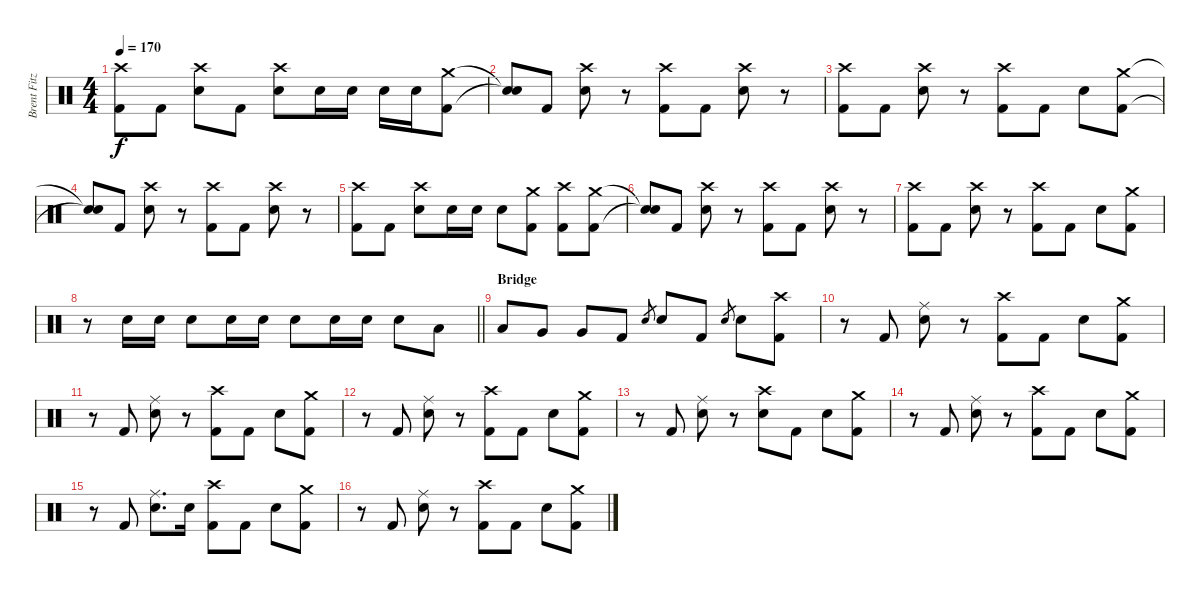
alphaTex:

\track ("Brent Fitz" "Brent Fitz") {instrument percussion}
\staff {score}
\articulation defaults
\ts (4 4)
\tempo 170
\clef neutral
\ks c
("Crash high (hit)" "Kick (hit) 2").8{dy f} "Kick (hit) 2".8 ("Crash high (hit)" "Electric Snare (hit)").8 "Kick (hit) 2".8 ("Crash high (hit)" "Electric Snare (hit)").8 "Electric Snare (hit)".16 "Electric Snare (hit)".16 "Electric Snare (hit)".16 "Electric Snare (hit)".16 ("Crash medium (hit)" "Kick (hit) 2").8 |
("Snare (hit)"{t} "Snare (hit)"{t}).8 "Kick (hit) 2".8 ("Crash high (hit)" "Electric Snare (hit)").8 r.8 ("Crash high (hit)" "Kick (hit) 2").8 "Kick (hit) 2".8 ("Crash high (hit)" "Electric Snare (hit)").8 r.8 |
("Crash high (hit)" "Kick (hit) 2").8 "Kick (hit) 2".8 ("Crash high (hit)" "Electric Snare (hit)").8 r.8 ("Crash high (hit)" "Kick (hit) 2").8 "Kick (hit) 2".8 "Electric Snare (hit)".8 ("Crash medium (hit)" "Kick (hit) 2").8 |
("Snare (hit)"{t} "Snare (hit)"{t}).8 "Kick (hit) 2".8 ("Crash high (hit)" "Electric Snare (hit)").8 r.8 ("Crash high (hit)" "Kick (hit) 2").8 "Kick (hit) 2".8 ("Crash high (hit)" "Electric Snare (hit)").8 r.8 |
("Crash high (hit)" "Kick (hit) 2").8 "Kick (hit) 2".8 ("Crash high (hit)" "Electric Snare (hit)").8 "Electric Snare (hit)".16 "Electric Snare (hit)".16 "Electric Snare (hit)".8 ("Crash medium (hit)" "Kick (hit) 2").8 ("Crash high (hit)" "Kick (hit) 2").8 ("Crash medium (hit)" "Kick (hit) 2").8 |
("Snare (hit)"{t} "Snare (hit)"{t}).8 "Kick (hit) 2".8 ("Crash high (hit)" "Electric Snare (hit)").8 r.8 ("Crash high (hit)" "Kick (hit) 2").8 "Kick (hit) 2".8 ("Crash high (hit)" "Electric Snare (hit)").8 r.8 |
("Crash high (hit)" "Kick (hit) 2").8 "Kick (hit) 2".8 ("Crash high (hit)" "Electric Snare (hit)").8 r.8 ("Crash high (hit)" "Kick (hit) 2").8 "Kick (hit) 2".8 "Electric Snare (hit)".8 ("Crash medium (hit)" "Kick (hit) 2").8 |
\barLineRight lightlight
r.8 "Electric Snare (hit)".16 "Electric Snare (hit)".16 "Electric Snare (hit)".8 "Electric Snare (hit)".16 "Electric Snare (hit)".16 "Electric Snare (hit)".8 "Electric Snare (hit)".16 "Electric Snare (hit)".16 "Electric Snare (hit)".8 "Low Tom (hit)".8 |
\section ("" "Bridge")
"Low Tom (hit)".8 "Very Low Tom (hit)".8 "Very Low Tom (hit)".8 "Kick (hit) 2".8 "Electric Snare (hit)".8{gr} "Electric Snare (hit)".8 "Kick (hit) 2".8 "Electric Snare (hit)".8{gr} "Electric Snare (hit)".8 ("Crash high (hit)" "Kick (hit) 2").8 |
r.8 "Kick (hit) 2".8 ("Ride (middle)" "Electric Snare (hit)").8 r.8 ("Crash high (hit)" "Kick (hit) 2").8 "Kick (hit) 2".8 "Electric Snare (hit)".8 ("Crash medium (hit)" "Kick (hit) 2").8 |
r.8 "Kick (hit) 2".8 ("Ride (middle)" "Electric Snare (hit)").8 r.8 ("Crash high (hit)" "Kick (hit) 2").8 "Kick (hit) 2".8 "Electric Snare (hit)".8 ("Crash medium (hit)" "Kick (hit) 2").8 |
r.8 "Kick (hit) 2".8 ("Ride (middle)" "Electric Snare (hit)").8 r.8 ("Crash high (hit)" "Kick (hit) 2").8 "Kick (hit) 2".8 "Electric Snare (hit)".8 ("Crash medium (hit)" "Kick (hit) 2").8 |
r.8 "Kick (hit) 2".8 ("Ride (middle)" "Electric Snare (hit)").8 r.8 ("Crash high (hit)" "Electric Snare (hit)").8 "Kick (hit) 2".8 "Electric Snare (hit)".8 ("Crash medium (hit)" "Kick (hit) 2").8 |
r.8 "Kick (hit) 2".8 ("Ride (middle)" "Electric Snare (hit)").8 r.8 ("Crash high (hit)" "Kick (hit) 2").8 "Kick (hit) 2".8 "Electric Snare (hit)".8 ("Crash medium (hit)" "Kick (hit) 2").8 |
r.8 "Kick (hit) 2".8 ("Ride (middle)" "Electric Snare (hit)").8{d} "Electric Snare (hit)".16 ("Crash high (hit)" "Kick (hit) 2").8 "Kick (hit) 2".8 "Electric Snare (hit)".8 ("Crash medium (hit)" "Kick (hit) 2").8 |
r.8 "Kick (hit) 2".8 ("Ride (middle)" "Electric Snare (hit)").8 r.8 ("Crash high (hit)" "Kick (hit) 2").8 "Kick (hit) 2".8 "Electric Snare (hit)".8 ("Crash medium (hit)" "Kick (hit) 2").8
